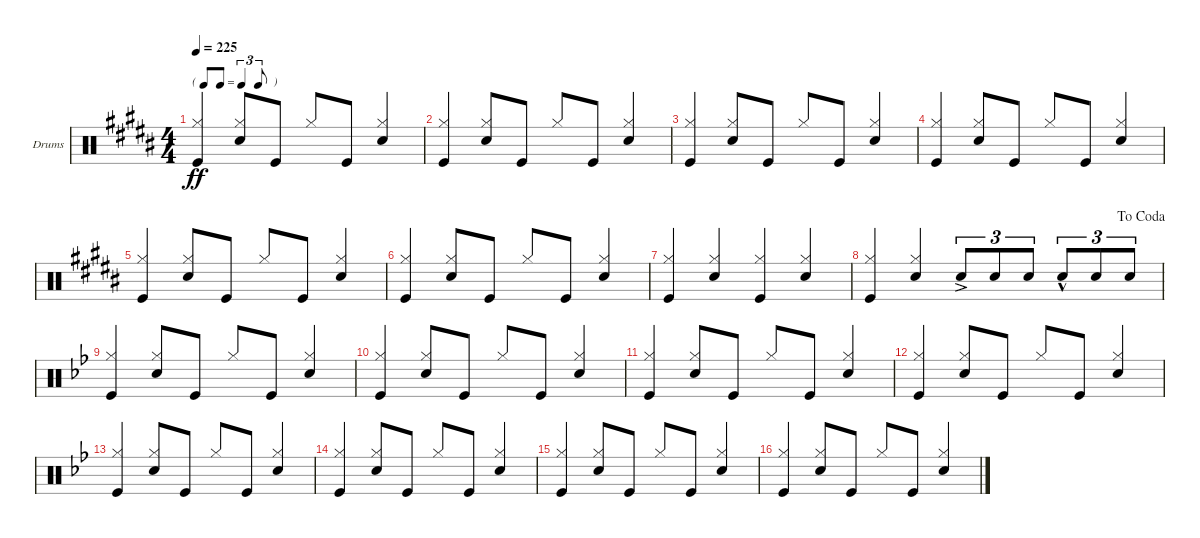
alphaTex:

\defaultSystemsLayout 4
\bracketExtendMode groupsimilarinstruments
\firstSystemTrackNameOrientation horizontal
\otherSystemsTrackNameOrientation horizontal
\track ("Drumkit" "Drums") {instrument percussion}
\staff {score}
\articulation defaults
\ts (4 4)
\tf triplet8th
\tempo 225
\clef neutral
\ks b
("Kick (hit)" "Hi-Hat (closed)").4{dy ff} ("Snare (hit) 2" "Hi-Hat (closed)").8{beam invert} "Kick (hit)".8 "Hi-Hat (closed)".8{beam invert} "Kick (hit)".8 ("Snare (hit) 2" "Hi-Hat (closed)").4{beam invert} |
("Kick (hit)" "Hi-Hat (closed)").4 ("Snare (hit) 2" "Hi-Hat (closed)").8{beam invert} "Kick (hit)".8 "Hi-Hat (closed)".8{beam invert} "Kick (hit)".8 ("Snare (hit) 2" "Hi-Hat (closed)").4{beam invert} |
("Kick (hit)" "Hi-Hat (closed)").4 ("Snare (hit) 2" "Hi-Hat (closed)").8{beam invert} "Kick (hit)".8 "Hi-Hat (closed)".8{beam invert} "Kick (hit)".8 ("Snare (hit) 2" "Hi-Hat (closed)").4{beam invert} |
("Kick (hit)" "Hi-Hat (closed)").4 ("Snare (hit) 2" "Hi-Hat (closed)").8{beam invert} "Kick (hit)".8 "Hi-Hat (closed)".8{beam invert} "Kick (hit)".8 ("Snare (hit) 2" "Hi-Hat (closed)").4{beam invert} |
("Kick (hit)" "Hi-Hat (closed)").4 ("Snare (hit) 2" "Hi-Hat (closed)").8{beam invert} "Kick (hit)".8 "Hi-Hat (closed)".8{beam invert} "Kick (hit)".8 ("Snare (hit) 2" "Hi-Hat (closed)").4{beam invert} |
("Kick (hit)" "Hi-Hat (closed)").4 ("Snare (hit) 2" "Hi-Hat (closed)").8{beam invert} "Kick (hit)".8 "Hi-Hat (closed)".8{beam invert} "Kick (hit)".8 ("Snare (hit) 2" "Hi-Hat (closed)").4{beam invert} |
("Kick (hit)" "Hi-Hat (closed)").4 ("Snare (hit) 2" "Hi-Hat (closed)").4{beam invert} ("Kick (hit)" "Hi-Hat (closed)").4 ("Snare (hit) 2" "Hi-Hat (closed)").4{beam invert} |
\jump dacoda
("Kick (hit)" "Hi-Hat (closed)").4 ("Snare (hit) 2" "Hi-Hat (closed)").4{beam invert} "Snare (hit) 2"{ac}.8{tu (3 2) beam invert} "Snare (hit) 2".8{tu (3 2)} "Snare (hit) 2".8{tu (3 2)} "Snare (hit) 2"{hac}.8{tu (3 2) beam invert} "Snare (hit) 2".8{tu (3 2)} "Snare (hit) 2".8{tu (3 2)} |
\ks gminor
("Kick (hit)" "Hi-Hat (closed)").4 ("Snare (hit) 2" "Hi-Hat (closed)").8{beam invert} "Kick (hit)".8 "Hi-Hat (closed)".8{beam invert} "Kick (hit)".8 ("Snare (hit) 2" "Hi-Hat (closed)").4{beam invert} |
("Kick (hit)" "Hi-Hat (closed)").4 ("Snare (hit) 2" "Hi-Hat (closed)").8{beam invert} "Kick (hit)".8 "Hi-Hat (closed)".8{beam invert} "Kick (hit)".8 ("Snare (hit) 2" "Hi-Hat (closed)").4{beam invert} |
("Kick (hit)" "Hi-Hat (closed)").4 ("Snare (hit) 2" "Hi-Hat (closed)").8{beam invert} "Kick (hit)".8 "Hi-Hat (closed)".8{beam invert} "Kick (hit)".8 ("Snare (hit) 2" "Hi-Hat (closed)").4{beam invert} |
("Kick (hit)" "Hi-Hat (closed)").4 ("Snare (hit) 2" "Hi-Hat (closed)").8{beam invert} "Kick (hit)".8 "Hi-Hat (closed)".8{beam invert} "Kick (hit)".8 ("Snare (hit) 2" "Hi-Hat (closed)").4{beam invert} |
("Kick (hit)" "Hi-Hat (closed)").4 ("Snare (hit) 2" "Hi-Hat (closed)").8{beam invert} "Kick (hit)".8 "Hi-Hat (closed)".8{beam invert} "Kick (hit)".8 ("Snare (hit) 2" "Hi-Hat (closed)").4{beam invert} |
("Kick (hit)" "Hi-Hat (closed)").4 ("Snare (hit) 2" "Hi-Hat (closed)").8{beam invert} "Kick (hit)".8 "Hi-Hat (closed)".8{beam invert} "Kick (hit)".8 ("Snare (hit) 2" "Hi-Hat (closed)").4{beam invert} |
("Kick (hit)" "Hi-Hat (closed)").4 ("Snare (hit) 2" "Hi-Hat (closed)").8{beam invert} "Kick (hit)".8 "Hi-Hat (closed)".8{beam invert} "Kick (hit)".8 ("Snare (hit) 2" "Hi-Hat (closed)").4{beam invert} |
("Kick (hit)" "Hi-Hat (closed)").4 ("Snare (hit) 2" "Hi-Hat (closed)").8{beam invert} "Kick (hit)".8 "Hi-Hat (closed)".8{beam invert} "Kick (hit)".8 ("Snare (hit) 2" "Hi-Hat (closed)").4{beam invert}
